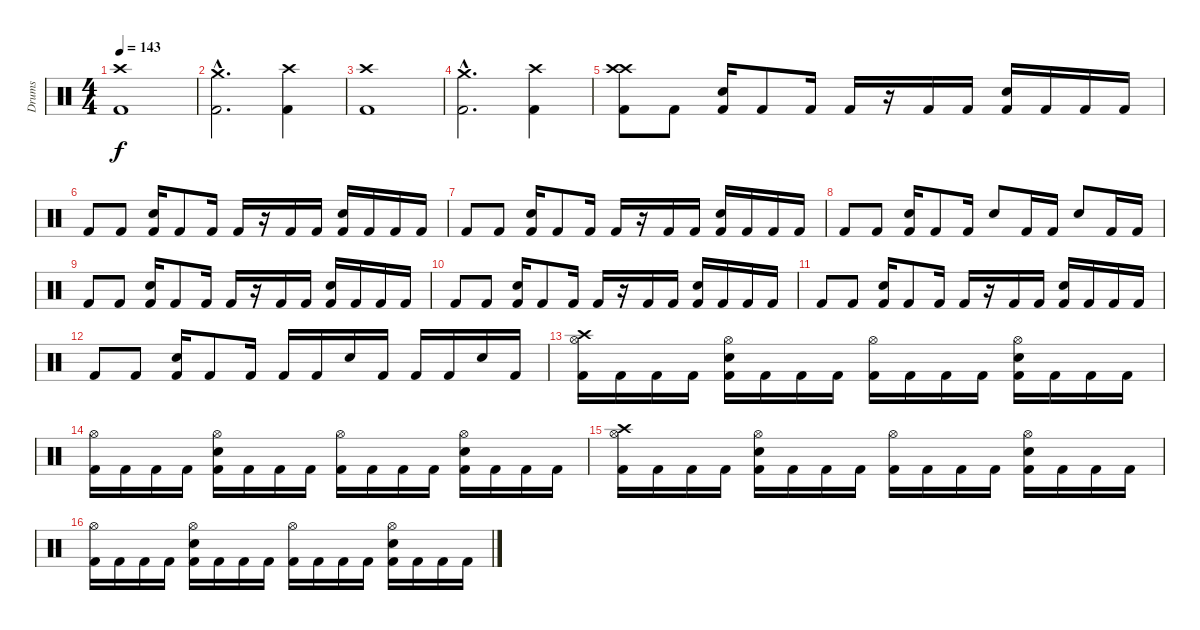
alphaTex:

\track ("Drums" "Drums") {instrument percussion}
\staff {score}
\articulation defaults
\ts (4 4)
\tempo 143
\clef neutral
\ks c
("Kick (hit) 2" "Crash high (hit)").1{dy f} |
("Kick (hit) 2"{hac} "Crash medium (hit)"{hac}).2{d} ("Kick (hit) 2" "Crash high (hit)").4 |
("Kick (hit) 2" "Crash high (hit)").1 |
("Kick (hit) 2"{hac} "Crash medium (hit)"{hac}).2{d} ("Kick (hit) 2" "Crash high (hit)").4 |
("Kick (hit) 2" "Crash high (hit)" "Crash high (hit)").8 "Kick (hit) 2".8 ("Kick (hit) 2" "Snare (hit) 2").16 "Kick (hit) 2".8 "Kick (hit) 2".16 "Kick (hit) 2".16 r.16 "Kick (hit) 2".16 "Kick (hit) 2".16 ("Kick (hit) 2" "Snare (hit) 2").16 "Kick (hit) 2".16 "Kick (hit) 2".16 "Kick (hit) 2".16 |
"Kick (hit) 2".8 "Kick (hit) 2".8 ("Kick (hit) 2" "Snare (hit) 2").16 "Kick (hit) 2".8 "Kick (hit) 2".16 "Kick (hit) 2".16 r.16 "Kick (hit) 2".16 "Kick (hit) 2".16 ("Kick (hit) 2" "Snare (hit) 2").16 "Kick (hit) 2".16 "Kick (hit) 2".16 "Kick (hit) 2".16 |
"Kick (hit) 2".8 "Kick (hit) 2".8 ("Kick (hit) 2" "Snare (hit) 2").16 "Kick (hit) 2".8 "Kick (hit) 2".16 "Kick (hit) 2".16 r.16 "Kick (hit) 2".16 "Kick (hit) 2".16 ("Kick (hit) 2" "Snare (hit) 2").16 "Kick (hit) 2".16 "Kick (hit) 2".16 "Kick (hit) 2".16 |
"Kick (hit) 2".8 "Kick (hit) 2".8 ("Kick (hit) 2" "Snare (hit) 2").16 "Kick (hit) 2".8 "Kick (hit) 2".16 "Snare (hit) 2".8 "Kick (hit) 2".16 "Kick (hit) 2".16 "Snare (hit) 2".8 "Kick (hit) 2".16 "Kick (hit) 2".16 |
"Kick (hit) 2".8 "Kick (hit) 2".8 ("Kick (hit) 2" "Snare (hit) 2").16 "Kick (hit) 2".8 "Kick (hit) 2".16 "Kick (hit) 2".16 r.16 "Kick (hit) 2".16 "Kick (hit) 2".16 ("Kick (hit) 2" "Snare (hit) 2").16 "Kick (hit) 2".16 "Kick (hit) 2".16 "Kick (hit) 2".16 |
"Kick (hit) 2".8 "Kick (hit) 2".8 ("Kick (hit) 2" "Snare (hit) 2").16 "Kick (hit) 2".8 "Kick (hit) 2".16 "Kick (hit) 2".16 r.16 "Kick (hit) 2".16 "Kick (hit) 2".16 ("Kick (hit) 2" "Snare (hit) 2").16 "Kick (hit) 2".16 "Kick (hit) 2".16 "Kick (hit) 2".16 |
"Kick (hit) 2".8 "Kick (hit) 2".8 ("Kick (hit) 2" "Snare (hit) 2").16 "Kick (hit) 2".8 "Kick (hit) 2".16 "Kick (hit) 2".16 r.16 "Kick (hit) 2".16 "Kick (hit) 2".16 ("Kick (hit) 2" "Snare (hit) 2").16 "Kick (hit) 2".16 "Kick (hit) 2".16 "Kick (hit) 2".16 |
"Kick (hit) 2".8 "Kick (hit) 2".8 ("Kick (hit) 2" "Snare (hit) 2").16 "Kick (hit) 2".8 "Kick (hit) 2".16 "Kick (hit) 2".16 "Kick (hit) 2".16 "Snare (hit) 2".16 "Kick (hit) 2".16 "Kick (hit) 2".16 "Kick (hit) 2".16 "Snare (hit) 2".16 "Kick (hit) 2".16 |
("Kick (hit) 2" "Crash high (hit)" "Hi-Hat (open)").16 "Kick (hit) 2".16 "Kick (hit) 2".16 "Kick (hit) 2".16 ("Snare (hit) 2" "Kick (hit) 2" "Hi-Hat (open)").16 "Kick (hit) 2".16 "Kick (hit) 2".16 "Kick (hit) 2".16 ("Kick (hit) 2" "Hi-Hat (open)").16 "Kick (hit) 2".16 "Kick (hit) 2".16 "Kick (hit) 2".16 ("Snare (hit) 2" "Kick (hit) 2" "Hi-Hat (open)").16 "Kick (hit) 2".16 "Kick (hit) 2".16 "Kick (hit) 2".16 |
("Kick (hit) 2" "Hi-Hat (open)").16 "Kick (hit) 2".16 "Kick (hit) 2".16 "Kick (hit) 2".16 ("Snare (hit) 2" "Kick (hit) 2" "Hi-Hat (open)").16 "Kick (hit) 2".16 "Kick (hit) 2".16 "Kick (hit) 2".16 ("Kick (hit) 2" "Hi-Hat (open)").16 "Kick (hit) 2".16 "Kick (hit) 2".16 "Kick (hit) 2".16 ("Snare (hit) 2" "Kick (hit) 2" "Hi-Hat (open)").16 "Kick (hit) 2".16 "Kick (hit) 2".16 "Kick (hit) 2".16 |
("Kick (hit) 2" "Crash high (hit)" "Hi-Hat (open)").16 "Kick (hit) 2".16 "Kick (hit) 2".16 "Kick (hit) 2".16 ("Snare (hit) 2" "Kick (hit) 2" "Hi-Hat (open)").16 "Kick (hit) 2".16 "Kick (hit) 2".16 "Kick (hit) 2".16 ("Kick (hit) 2" "Hi-Hat (open)").16 "Kick (hit) 2".16 "Kick (hit) 2".16 "Kick (hit) 2".16 ("Snare (hit) 2" "Kick (hit) 2" "Hi-Hat (open)").16 "Kick (hit) 2".16 "Kick (hit) 2".16 "Kick (hit) 2".16 |
("Kick (hit) 2" "Hi-Hat (open)").16 "Kick (hit) 2".16 "Kick (hit) 2".16 "Kick (hit) 2".16 ("Snare (hit) 2" "Kick (hit) 2" "Hi-Hat (open)").16 "Kick (hit) 2".16 "Kick (hit) 2".16 "Kick (hit) 2".16 ("Kick (hit) 2" "Hi-Hat (open)").16 "Kick (hit) 2".16 "Kick (hit) 2".16 "Kick (hit) 2".16 ("Snare (hit) 2" "Kick (hit) 2" "Hi-Hat (open)").16 "Kick (hit) 2".16 "Kick (hit) 2".16 "Kick (hit) 2".16
